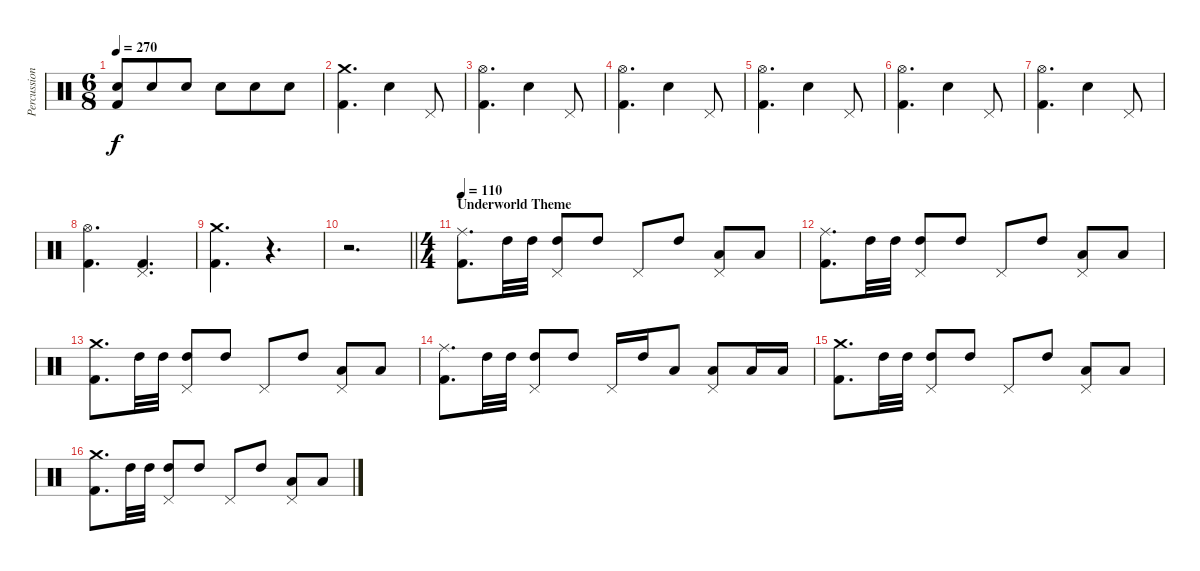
\track ("Percussion" "Percussion") {instrument percussion}
\staff {score}
\articulation defaults
\ts (6 8)
\tempo 270
\clef neutral
\ks c
("Snare (hit) 2" "Kick (hit) 2").8{dy f} "Snare (hit) 2".8 "Snare (hit) 2".8 "Electric Snare (hit)".8 "Electric Snare (hit)".8 "Electric Snare (hit)".8 |
("Crash medium (hit)" "Kick (hit) 2").4{d} "Electric Snare (hit)".4 "Pedal Hi-Hat (hit)".8 |
("Hi-Hat (open)" "Kick (hit) 2").4{d} "Electric Snare (hit)".4 "Pedal Hi-Hat (hit)".8 |
("Hi-Hat (open)" "Kick (hit) 2").4{d} "Electric Snare (hit)".4 "Pedal Hi-Hat (hit)".8 |
("Hi-Hat (open)" "Kick (hit) 2").4{d} "Electric Snare (hit)".4 "Pedal Hi-Hat (hit)".8 |
("Hi-Hat (open)" "Kick (hit) 2").4{d} "Electric Snare (hit)".4 "Pedal Hi-Hat (hit)".8 |
("Hi-Hat (open)" "Kick (hit) 2").4{d} "Electric Snare (hit)".4 "Pedal Hi-Hat (hit)".8 |
("Hi-Hat (open)" "Kick (hit) 2").4{d} ("Pedal Hi-Hat (hit)" "Kick (hit) 2").4{d} |
("Crash medium (hit)" "Kick (hit) 2").4{d} r.4{d} |
\barLineRight lightlight
r.2{d} |
\ts (4 4)
\section ("" "Underworld Theme")
\tempo 110
("Ride (middle)" "Kick (hit) 2").8{d} "High Tom (hit)".32 "High Tom (hit)".32 ("Pedal Hi-Hat (hit)" "High Tom (hit)").8 "High Tom (hit)".8 "Pedal Hi-Hat (hit)".8 "High Tom (hit)".8 ("Pedal Hi-Hat (hit)" "Low Tom (hit)").8 "Low Tom (hit)".8 |
("Ride (middle)" "Kick (hit) 2").8{d} "High Tom (hit)".32 "High Tom (hit)".32 ("Pedal Hi-Hat (hit)" "High Tom (hit)").8 "High Tom (hit)".8 "Pedal Hi-Hat (hit)".8 "High Tom (hit)".8 ("Pedal Hi-Hat (hit)" "Low Tom (hit)").8 "Low Tom (hit)".8 |
("Crash medium (hit)" "Kick (hit) 2").8{d} "High Tom (hit)".32 "High Tom (hit)".32 ("Pedal Hi-Hat (hit)" "High Tom (hit)").8 "High Tom (hit)".8 "Pedal Hi-Hat (hit)".8 "High Tom (hit)".8 ("Pedal Hi-Hat (hit)" "Low Tom (hit)").8 "Low Tom (hit)".8 |
("Ride (middle)" "Kick (hit) 2").8{d} "High Tom (hit)".32 "High Tom (hit)".32 ("Pedal Hi-Hat (hit)" "High Tom (hit)").8 "High Tom (hit)".8 "Pedal Hi-Hat (hit)".16 "High Tom (hit)".16 "Low Tom (hit)".8 ("Pedal Hi-Hat (hit)" "Low Tom (hit)").8 "Low Floor Tom (hit)".16 "Low Floor Tom (hit)".16 |
("Crash medium (hit)" "Kick (hit) 2").8{d} "High Tom (hit)".32 "High Tom (hit)".32 ("Pedal Hi-Hat (hit)" "High Tom (hit)").8 "High Tom (hit)".8 "Pedal Hi-Hat (hit)".8 "High Tom (hit)".8 ("Pedal Hi-Hat (hit)" "Low Tom (hit)").8 "Low Tom (hit)".8 |
("Crash medium (hit)" "Kick (hit) 2").8{d} "High Tom (hit)".32 "High Tom (hit)".32 ("Pedal Hi-Hat (hit)" "High Tom (hit)").8 "High Tom (hit)".8 "Pedal Hi-Hat (hit)".8 "High Tom (hit)".8 ("Pedal Hi-Hat (hit)" "Low Tom (hit)").8 "Low Tom (hit)".8
